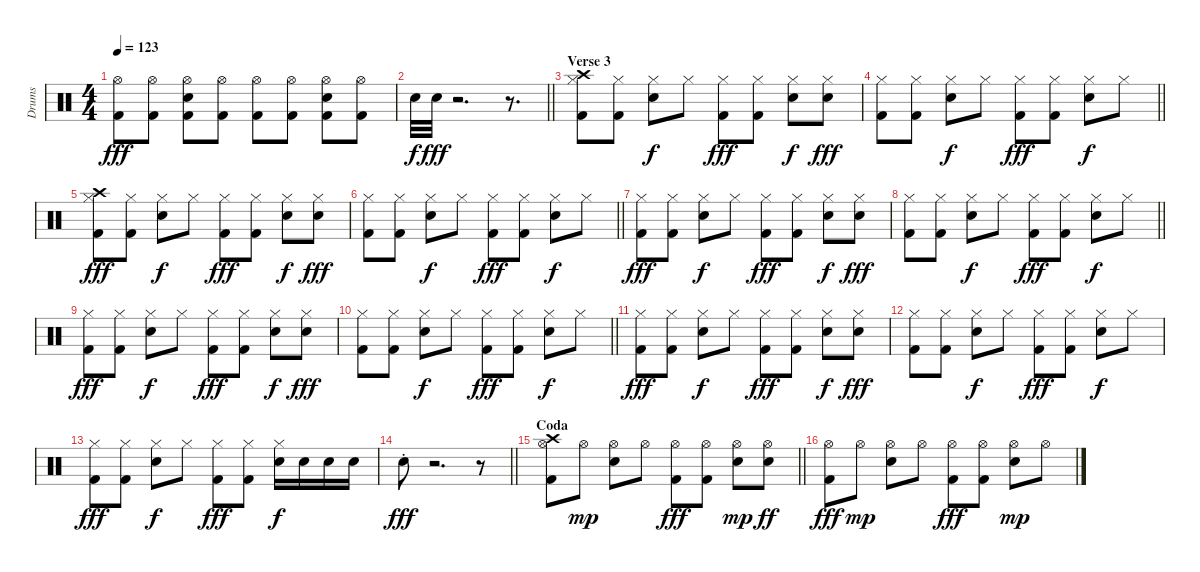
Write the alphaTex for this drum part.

\track ("Drums" "Drums") {instrument percussion}
\staff {score}
\articulation defaults
\ts (4 4)
\tempo 123
\clef neutral
\ks c
("Hi-Hat (open)" "Kick (hit) 2").8{dy fff} ("Hi-Hat (open)" "Kick (hit) 2").8 ("Hi-Hat (open)" "Kick (hit) 2" "Snare (hit) 2").8 ("Hi-Hat (open)" "Kick (hit) 2").8 ("Hi-Hat (open)" "Kick (hit) 2").8 ("Hi-Hat (open)" "Kick (hit) 2").8 ("Hi-Hat (open)" "Kick (hit) 2" "Snare (hit) 2").8 ("Hi-Hat (open)" "Kick (hit) 2").8 |
\barLineRight lightlight "Snare (hit) 2".32{dy f} "Snare (hit) 2".32{dy fff}
r.2{d} r.8{d} |
\section ("" "Verse 3")
("Hi-Hat (closed)" "Kick (hit) 2" "Crash high (hit)").8 ("Hi-Hat (closed)" "Kick (hit) 2").8 ("Hi-Hat (closed)" "Snare (hit) 2").8{dy f} "Hi-Hat (closed)".8 ("Hi-Hat (closed)" "Kick (hit) 2").8{dy fff} ("Hi-Hat (closed)" "Kick (hit) 2").8 ("Hi-Hat (closed)" "Snare (hit) 2").8{dy f} ("Hi-Hat (closed)" "Snare (hit) 2").8{dy fff} |
\barLineRight lightlight
("Hi-Hat (closed)" "Kick (hit) 2").8 ("Hi-Hat (closed)" "Kick (hit) 2").8 ("Hi-Hat (closed)" "Snare (hit) 2").8{dy f} "Hi-Hat (closed)".8 ("Hi-Hat (closed)" "Kick (hit) 2").8{dy fff} ("Hi-Hat (closed)" "Kick (hit) 2").8 ("Hi-Hat (closed)" "Snare (hit) 2").8{dy f} "Hi-Hat (closed)".8 |
("Hi-Hat (closed)" "Kick (hit) 2" "Crash high (hit)").8{dy fff} ("Hi-Hat (closed)" "Kick (hit) 2").8 ("Hi-Hat (closed)" "Snare (hit) 2").8{dy f} "Hi-Hat (closed)".8 ("Hi-Hat (closed)" "Kick (hit) 2").8{dy fff} ("Hi-Hat (closed)" "Kick (hit) 2").8 ("Hi-Hat (closed)" "Snare (hit) 2").8{dy f} ("Hi-Hat (closed)" "Snare (hit) 2").8{dy fff} |
\barLineRight lightlight
("Hi-Hat (closed)" "Kick (hit) 2").8 ("Hi-Hat (closed)" "Kick (hit) 2").8 ("Hi-Hat (closed)" "Snare (hit) 2").8{dy f} "Hi-Hat (closed)".8 ("Hi-Hat (closed)" "Kick (hit) 2").8{dy fff} ("Hi-Hat (closed)" "Kick (hit) 2").8 ("Hi-Hat (closed)" "Snare (hit) 2").8{dy f} "Hi-Hat (closed)".8 |
("Hi-Hat (closed)" "Kick (hit) 2").8{dy fff} ("Hi-Hat (closed)" "Kick (hit) 2").8 ("Hi-Hat (closed)" "Snare (hit) 2").8{dy f} "Hi-Hat (closed)".8 ("Hi-Hat (closed)" "Kick (hit) 2").8{dy fff} ("Hi-Hat (closed)" "Kick (hit) 2").8 ("Hi-Hat (closed)" "Snare (hit) 2").8{dy f} ("Hi-Hat (closed)" "Snare (hit) 2").8{dy fff} |
\barLineRight lightlight
("Hi-Hat (closed)" "Kick (hit) 2").8 ("Hi-Hat (closed)" "Kick (hit) 2").8 ("Hi-Hat (closed)" "Snare (hit) 2").8{dy f} "Hi-Hat (closed)".8 ("Hi-Hat (closed)" "Kick (hit) 2").8{dy fff} ("Hi-Hat (closed)" "Kick (hit) 2").8 ("Hi-Hat (closed)" "Snare (hit) 2").8{dy f} "Hi-Hat (closed)".8 |
("Hi-Hat (closed)" "Kick (hit) 2").8{dy fff} ("Hi-Hat (closed)" "Kick (hit) 2").8 ("Hi-Hat (closed)" "Snare (hit) 2").8{dy f} "Hi-Hat (closed)".8 ("Hi-Hat (closed)" "Kick (hit) 2").8{dy fff} ("Hi-Hat (closed)" "Kick (hit) 2").8 ("Hi-Hat (closed)" "Snare (hit) 2").8{dy f} ("Hi-Hat (closed)" "Snare (hit) 2").8{dy fff} |
\barLineRight lightlight
("Hi-Hat (closed)" "Kick (hit) 2").8 ("Hi-Hat (closed)" "Kick (hit) 2").8 ("Hi-Hat (closed)" "Snare (hit) 2").8{dy f} "Hi-Hat (closed)".8 ("Hi-Hat (closed)" "Kick (hit) 2").8{dy fff} ("Hi-Hat (closed)" "Kick (hit) 2").8 ("Hi-Hat (closed)" "Snare (hit) 2").8{dy f} "Hi-Hat (closed)".8 |
("Hi-Hat (closed)" "Kick (hit) 2").8{dy fff} ("Hi-Hat (closed)" "Kick (hit) 2").8 ("Hi-Hat (closed)" "Snare (hit) 2").8{dy f} "Hi-Hat (closed)".8 ("Hi-Hat (closed)" "Kick (hit) 2").8{dy fff} ("Hi-Hat (closed)" "Kick (hit) 2").8 ("Hi-Hat (closed)" "Snare (hit) 2").8{dy f} ("Hi-Hat (closed)" "Snare (hit) 2").8{dy fff} |
("Hi-Hat (closed)" "Kick (hit) 2").8 ("Hi-Hat (closed)" "Kick (hit) 2").8 ("Hi-Hat (closed)" "Snare (hit) 2").8{dy f} "Hi-Hat (closed)".8 ("Hi-Hat (closed)" "Kick (hit) 2").8{dy fff} ("Hi-Hat (closed)" "Kick (hit) 2").8 ("Hi-Hat (closed)" "Snare (hit) 2").8{dy f} "Hi-Hat (closed)".8 |
("Hi-Hat (closed)" "Kick (hit) 2").8{dy fff} ("Hi-Hat (closed)" "Kick (hit) 2").8 ("Hi-Hat (closed)" "Snare (hit) 2").8{dy f} "Hi-Hat (closed)".8 ("Hi-Hat (closed)" "Kick (hit) 2").8{dy fff} ("Hi-Hat (closed)" "Kick (hit) 2").8 ("Hi-Hat (closed)" "Snare (hit) 2").16{dy f} "Snare (hit) 2".16 "Snare (hit) 2".16 "Snare (hit) 2".16 |
\barLineRight lightlight "Snare (hit) 2"{st}.8{dy fff}
r.2{d} r.8 |
\section ("" "Coda")
\barLineRight lightlight
("Hi-Hat (open)" "Kick (hit) 2" "Crash high (hit)").8 "Hi-Hat (open)".8{dy mp} ("Hi-Hat (open)" "Snare (hit) 2").8 "Hi-Hat (open)".8 ("Hi-Hat (open)" "Kick (hit) 2").8{dy fff} ("Hi-Hat (open)" "Kick (hit) 2").8 ("Hi-Hat (open)" "Snare (hit) 2").8{dy mp} ("Hi-Hat (open)" "Snare (hit) 2").8{dy ff} |
("Hi-Hat (open)" "Kick (hit) 2").8{dy fff} "Hi-Hat (open)".8{dy mp} ("Hi-Hat (open)" "Snare (hit) 2").8 "Hi-Hat (open)".8 ("Hi-Hat (open)" "Kick (hit) 2").8{dy fff} ("Hi-Hat (open)" "Kick (hit) 2").8 ("Hi-Hat (open)" "Snare (hit) 2").8{dy mp} "Hi-Hat (open)".8
